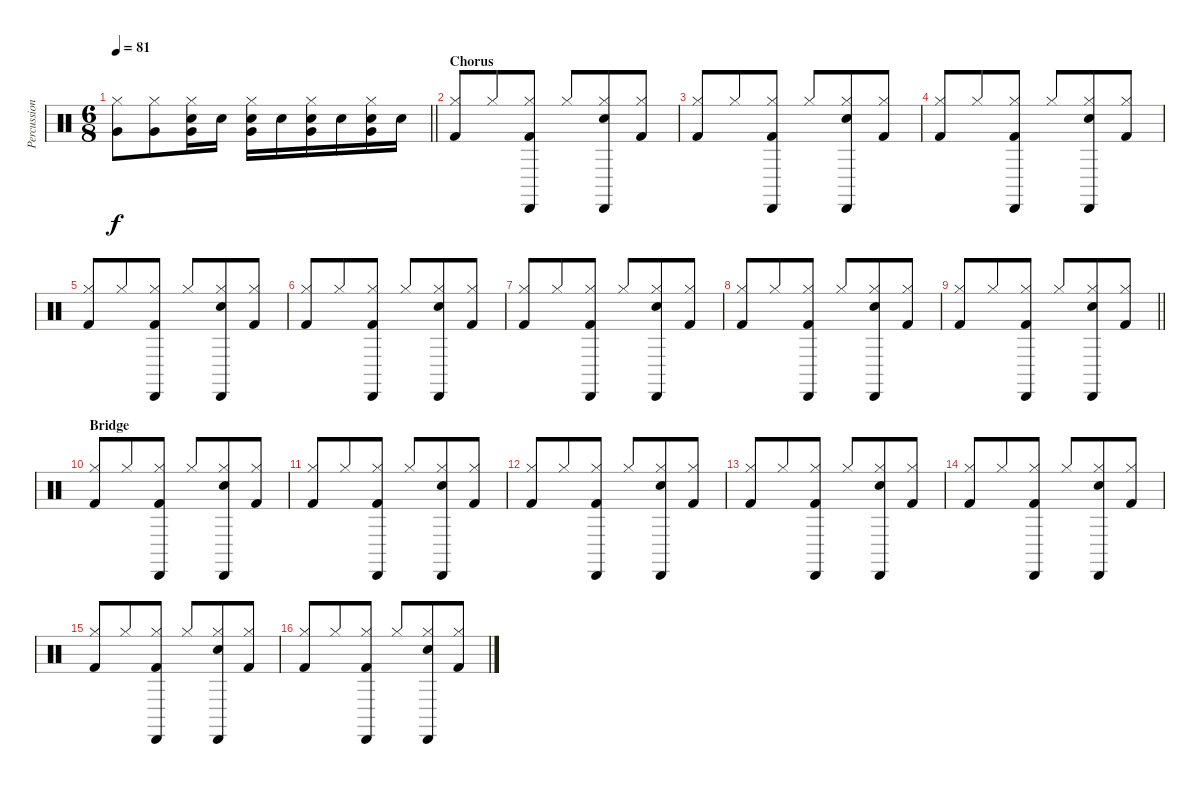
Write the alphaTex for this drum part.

\track ("Percussion" "Percussion") {instrument percussion}
\staff {score}
\articulation defaults
\ts (6 8)
\tempo 81
\clef neutral
\barLineRight lightlight
\ks c
("Hi-Hat (closed)" "Very Low Tom (hit)").8{dy f} ("Hi-Hat (closed)" "Very Low Tom (hit)").8 ("Hi-Hat (closed)" "Very Low Tom (hit)" "Snare (hit) 2").16 "Snare (hit) 2".16 ("Hi-Hat (closed)" "Very Low Tom (hit)" "Snare (hit) 2").16 "Snare (hit) 2".16 ("Hi-Hat (closed)" "Very Low Tom (hit)" "Snare (hit) 2").16 "Snare (hit) 2".16 ("Hi-Hat (closed)" "Very Low Tom (hit)" "Snare (hit) 2").16 "Snare (hit) 2".16 |
\section ("" "Chorus")
("Hi-Hat (closed)" "Kick (hit) 2").8 "Hi-Hat (closed)".8 ("Hi-Hat (closed)" "Kick (hit) 2" "Cabasa (hit)").8 "Hi-Hat (closed)".8 ("Hi-Hat (closed)" "Snare (hit) 2" "Cabasa (hit)").8 ("Hi-Hat (closed)" "Kick (hit) 2").8 |
("Hi-Hat (closed)" "Kick (hit) 2").8 "Hi-Hat (closed)".8 ("Hi-Hat (closed)" "Kick (hit) 2" "Cabasa (hit)").8 "Hi-Hat (closed)".8 ("Hi-Hat (closed)" "Snare (hit) 2" "Cabasa (hit)").8 ("Hi-Hat (closed)" "Kick (hit) 2").8 |
("Hi-Hat (closed)" "Kick (hit) 2").8 "Hi-Hat (closed)".8 ("Hi-Hat (closed)" "Kick (hit) 2" "Cabasa (hit)").8 "Hi-Hat (closed)".8 ("Hi-Hat (closed)" "Snare (hit) 2" "Cabasa (hit)").8 ("Hi-Hat (closed)" "Kick (hit) 2").8 |
("Hi-Hat (closed)" "Kick (hit) 2").8 "Hi-Hat (closed)".8 ("Hi-Hat (closed)" "Kick (hit) 2" "Cabasa (hit)").8 "Hi-Hat (closed)".8 ("Hi-Hat (closed)" "Snare (hit) 2" "Cabasa (hit)").8 ("Hi-Hat (closed)" "Kick (hit) 2").8 |
("Hi-Hat (closed)" "Kick (hit) 2").8 "Hi-Hat (closed)".8 ("Hi-Hat (closed)" "Kick (hit) 2" "Cabasa (hit)").8 "Hi-Hat (closed)".8 ("Hi-Hat (closed)" "Snare (hit) 2" "Cabasa (hit)").8 ("Hi-Hat (closed)" "Kick (hit) 2").8 |
("Hi-Hat (closed)" "Kick (hit) 2").8 "Hi-Hat (closed)".8 ("Hi-Hat (closed)" "Kick (hit) 2" "Cabasa (hit)").8 "Hi-Hat (closed)".8 ("Hi-Hat (closed)" "Snare (hit) 2" "Cabasa (hit)").8 ("Hi-Hat (closed)" "Kick (hit) 2").8 |
("Hi-Hat (closed)" "Kick (hit) 2").8 "Hi-Hat (closed)".8 ("Hi-Hat (closed)" "Kick (hit) 2" "Cabasa (hit)").8 "Hi-Hat (closed)".8 ("Hi-Hat (closed)" "Snare (hit) 2" "Cabasa (hit)").8 ("Hi-Hat (closed)" "Kick (hit) 2").8 |
\barLineRight lightlight
("Hi-Hat (closed)" "Kick (hit) 2").8 "Hi-Hat (closed)".8 ("Hi-Hat (closed)" "Kick (hit) 2" "Cabasa (hit)").8 "Hi-Hat (closed)".8 ("Hi-Hat (closed)" "Snare (hit) 2" "Cabasa (hit)").8 ("Hi-Hat (closed)" "Kick (hit) 2").8 |
\section ("" "Bridge")
("Hi-Hat (closed)" "Kick (hit) 2").8 "Hi-Hat (closed)".8 ("Hi-Hat (closed)" "Kick (hit) 2" "Cabasa (hit)").8 "Hi-Hat (closed)".8 ("Hi-Hat (closed)" "Snare (hit) 2" "Cabasa (hit)").8 ("Hi-Hat (closed)" "Kick (hit) 2").8 |
("Hi-Hat (closed)" "Kick (hit) 2").8 "Hi-Hat (closed)".8 ("Hi-Hat (closed)" "Kick (hit) 2" "Cabasa (hit)").8 "Hi-Hat (closed)".8 ("Hi-Hat (closed)" "Snare (hit) 2" "Cabasa (hit)").8 ("Hi-Hat (closed)" "Kick (hit) 2").8 |
("Hi-Hat (closed)" "Kick (hit) 2").8 "Hi-Hat (closed)".8 ("Hi-Hat (closed)" "Kick (hit) 2" "Cabasa (hit)").8 "Hi-Hat (closed)".8 ("Hi-Hat (closed)" "Snare (hit) 2" "Cabasa (hit)").8 ("Hi-Hat (closed)" "Kick (hit) 2").8 |
("Hi-Hat (closed)" "Kick (hit) 2").8 "Hi-Hat (closed)".8 ("Hi-Hat (closed)" "Kick (hit) 2" "Cabasa (hit)").8 "Hi-Hat (closed)".8 ("Hi-Hat (closed)" "Snare (hit) 2" "Cabasa (hit)").8 ("Hi-Hat (closed)" "Kick (hit) 2").8 |
("Hi-Hat (closed)" "Kick (hit) 2").8 "Hi-Hat (closed)".8 ("Hi-Hat (closed)" "Kick (hit) 2" "Cabasa (hit)").8 "Hi-Hat (closed)".8 ("Hi-Hat (closed)" "Snare (hit) 2" "Cabasa (hit)").8 ("Hi-Hat (closed)" "Kick (hit) 2").8 |
("Hi-Hat (closed)" "Kick (hit) 2").8 "Hi-Hat (closed)".8 ("Hi-Hat (closed)" "Kick (hit) 2" "Cabasa (hit)").8 "Hi-Hat (closed)".8 ("Hi-Hat (closed)" "Snare (hit) 2" "Cabasa (hit)").8 ("Hi-Hat (closed)" "Kick (hit) 2").8 |
("Hi-Hat (closed)" "Kick (hit) 2").8 "Hi-Hat (closed)".8 ("Hi-Hat (closed)" "Kick (hit) 2" "Cabasa (hit)").8 "Hi-Hat (closed)".8 ("Hi-Hat (closed)" "Snare (hit) 2" "Cabasa (hit)").8 ("Hi-Hat (closed)" "Kick (hit) 2").8
